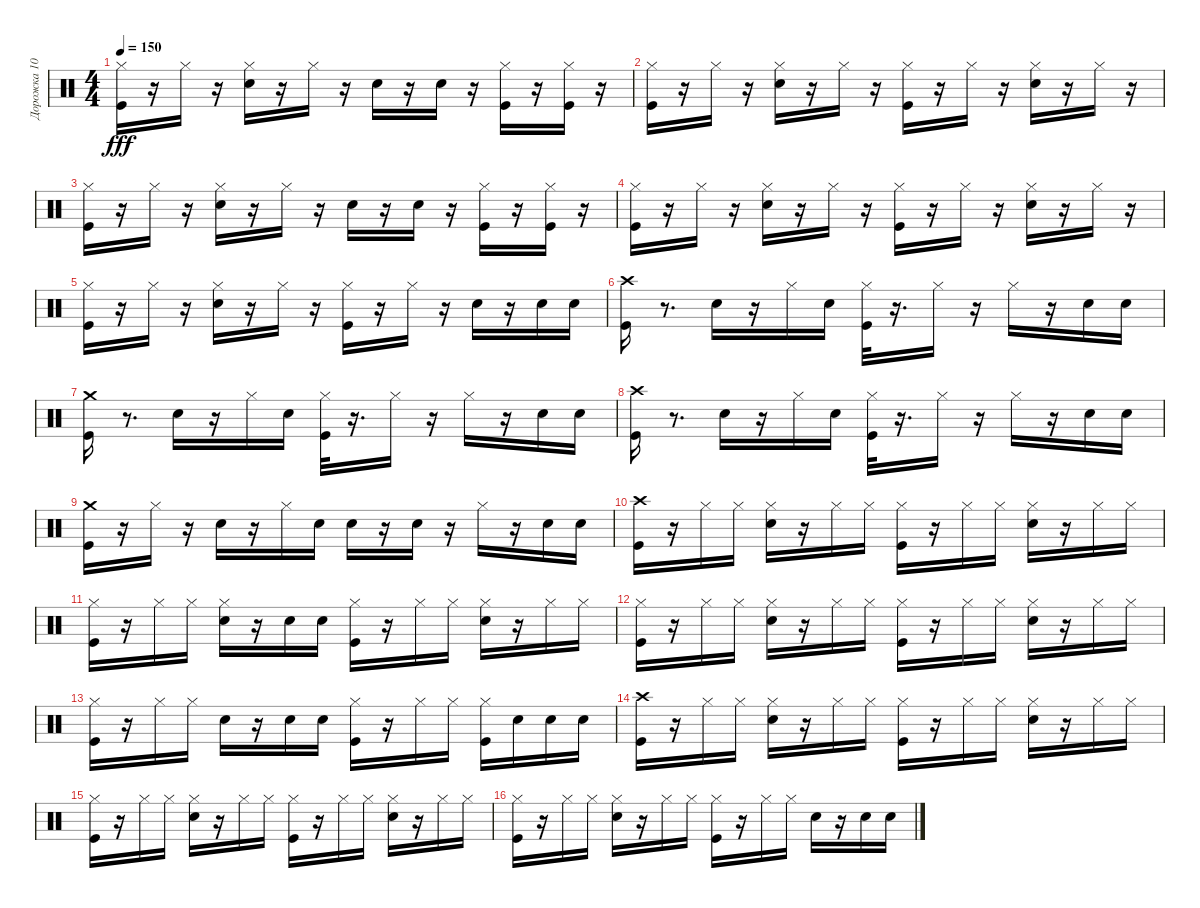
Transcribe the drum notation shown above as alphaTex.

\track ("Дорожка 10" "Дорожка 10") {instrument percussion}
\staff {score}
\articulation defaults
\ts (4 4)
\tempo 150
\clef neutral
\ks c
("Hi-Hat (closed)" "Kick (hit)").16{dy fff} r.16 "Hi-Hat (closed)".16 r.16 ("Electric Snare (hit)" "Hi-Hat (closed)").16 r.16 "Hi-Hat (closed)".16 r.16 "Electric Snare (hit)".16 r.16 "Electric Snare (hit)".16 r.16 ("Kick (hit)" "Hi-Hat (closed)").16 r.16 ("Hi-Hat (closed)" "Kick (hit)").16 r.16 |
("Hi-Hat (closed)" "Kick (hit)").16 r.16 "Hi-Hat (closed)".16 r.16 ("Electric Snare (hit)" "Hi-Hat (closed)").16 r.16 "Hi-Hat (closed)".16 r.16 ("Kick (hit)" "Hi-Hat (closed)").16 r.16 "Hi-Hat (closed)".16 r.16 ("Electric Snare (hit)" "Hi-Hat (closed)").16 r.16 "Hi-Hat (closed)".16 r.16 |
("Hi-Hat (closed)" "Kick (hit)").16 r.16 "Hi-Hat (closed)".16 r.16 ("Hi-Hat (closed)" "Electric Snare (hit)").16 r.16 "Hi-Hat (closed)".16 r.16 "Electric Snare (hit)".16 r.16 "Electric Snare (hit)".16 r.16 ("Hi-Hat (closed)" "Kick (hit)").16 r.16 ("Hi-Hat (closed)" "Kick (hit)").16 r.16 |
("Kick (hit)" "Hi-Hat (closed)").16 r.16 "Hi-Hat (closed)".16 r.16 ("Hi-Hat (closed)" "Electric Snare (hit)").16 r.16 "Hi-Hat (closed)".16 r.16 ("Hi-Hat (closed)" "Kick (hit)").16 r.16 "Hi-Hat (closed)".16 r.16 ("Electric Snare (hit)" "Hi-Hat (closed)").16 r.16 "Hi-Hat (closed)".16 r.16 |
("Kick (hit)" "Hi-Hat (closed)").16 r.16 "Hi-Hat (closed)".16 r.16 ("Hi-Hat (closed)" "Electric Snare (hit)").16 r.16 "Hi-Hat (closed)".16 r.16 ("Hi-Hat (closed)" "Kick (hit)").16 r.16 "Hi-Hat (closed)".16 r.16 "Electric Snare (hit)".16 r.16 "Electric Snare (hit)".16 "Electric Snare (hit)".16 |
("Crash high (hit)" "Kick (hit)").16 r.8{d} "Electric Snare (hit)".16 r.16 "Hi-Hat (closed)".16 "Electric Snare (hit)".16 ("Hi-Hat (closed)" "Kick (hit)").32 r.16{d} "Hi-Hat (closed)".16 r.16 "Hi-Hat (closed)".16 r.16 "Electric Snare (hit)".16 "Electric Snare (hit)".16 |
("Crash medium (hit)" "Kick (hit)").16 r.8{d} "Electric Snare (hit)".16 r.16 "Hi-Hat (closed)".16 "Electric Snare (hit)".16 ("Hi-Hat (closed)" "Kick (hit)").32 r.16{d} "Hi-Hat (closed)".16 r.16 "Hi-Hat (closed)".16 r.16 "Electric Snare (hit)".16 "Electric Snare (hit)".16 |
("Crash high (hit)" "Kick (hit)").16 r.8{d} "Electric Snare (hit)".16 r.16 "Hi-Hat (closed)".16 "Electric Snare (hit)".16 ("Hi-Hat (closed)" "Kick (hit)").32 r.16{d} "Hi-Hat (closed)".16 r.16 "Hi-Hat (closed)".16 r.16 "Electric Snare (hit)".16 "Electric Snare (hit)".16 |
("Crash medium (hit)" "Kick (hit)").16 r.16 "Hi-Hat (closed)".16 r.16 "Electric Snare (hit)".16 r.16 "Hi-Hat (closed)".16 "Electric Snare (hit)".16 "Electric Snare (hit)".16 r.16 "Electric Snare (hit)".16 r.16 "Hi-Hat (closed)".16 r.16 "Electric Snare (hit)".16 "Electric Snare (hit)".16 |
("Kick (hit)" "Crash high (hit)").16 r.16 "Hi-Hat (closed)".16 "Hi-Hat (closed)".16 ("Hi-Hat (closed)" "Electric Snare (hit)").16 r.16 "Hi-Hat (closed)".16 "Hi-Hat (closed)".16 ("Hi-Hat (closed)" "Kick (hit)").16 r.16 "Hi-Hat (closed)".16 "Hi-Hat (closed)".16 ("Hi-Hat (closed)" "Electric Snare (hit)").16 r.16 "Hi-Hat (closed)".16 "Hi-Hat (closed)".16 |
("Hi-Hat (closed)" "Kick (hit)").16 r.16 "Hi-Hat (closed)".16 "Hi-Hat (closed)".16 ("Electric Snare (hit)" "Hi-Hat (closed)").16 r.16 "Electric Snare (hit)".16 "Electric Snare (hit)".16 ("Hi-Hat (closed)" "Kick (hit)").16 r.16 "Hi-Hat (closed)".16 "Hi-Hat (closed)".16 ("Hi-Hat (closed)" "Electric Snare (hit)").16 r.16 "Hi-Hat (closed)".16 "Hi-Hat (closed)".16 |
("Hi-Hat (closed)" "Kick (hit)").16 r.16 "Hi-Hat (closed)".16 "Hi-Hat (closed)".16 ("Electric Snare (hit)" "Hi-Hat (closed)").16 r.16 "Hi-Hat (closed)".16 "Hi-Hat (closed)".16 ("Hi-Hat (closed)" "Kick (hit)").16 r.16 "Hi-Hat (closed)".16 "Hi-Hat (closed)".16 ("Hi-Hat (closed)" "Electric Snare (hit)").16 r.16 "Hi-Hat (closed)".16 "Hi-Hat (closed)".16 |
("Kick (hit)" "Hi-Hat (closed)").16 r.16 "Hi-Hat (closed)".16 "Hi-Hat (closed)".16 "Electric Snare (hit)".16 r.16 "Electric Snare (hit)".16 "Electric Snare (hit)".16 ("Hi-Hat (closed)" "Kick (hit)").16 r.16 "Hi-Hat (closed)".16 "Hi-Hat (closed)".16 ("Hi-Hat (closed)" "Kick (hit)").16 "Electric Snare (hit)".16 "Electric Snare (hit)".16 "Electric Snare (hit)".16 |
("Kick (hit)" "Crash high (hit)").16 r.16 "Hi-Hat (closed)".16 "Hi-Hat (closed)".16 ("Electric Snare (hit)" "Hi-Hat (closed)").16 r.16 "Hi-Hat (closed)".16 "Hi-Hat (closed)".16 ("Kick (hit)" "Hi-Hat (closed)").16 r.16 "Hi-Hat (closed)".16 "Hi-Hat (closed)".16 ("Electric Snare (hit)" "Hi-Hat (closed)").16 r.16 "Hi-Hat (closed)".16 "Hi-Hat (closed)".16 |
("Kick (hit)" "Hi-Hat (closed)").16 r.16 "Hi-Hat (closed)".16 "Hi-Hat (closed)".16 ("Hi-Hat (closed)" "Electric Snare (hit)").16 r.16 "Hi-Hat (closed)".16 "Hi-Hat (closed)".16 ("Kick (hit)" "Hi-Hat (closed)").16 r.16 "Hi-Hat (closed)".16 "Hi-Hat (closed)".16 ("Electric Snare (hit)" "Hi-Hat (closed)").16 r.16 "Hi-Hat (closed)".16 "Hi-Hat (closed)".16 |
("Hi-Hat (closed)" "Kick (hit)").16 r.16 "Hi-Hat (closed)".16 "Hi-Hat (closed)".16 ("Electric Snare (hit)" "Hi-Hat (closed)").16 r.16 "Hi-Hat (closed)".16 "Hi-Hat (closed)".16 ("Kick (hit)" "Hi-Hat (closed)").16 r.16 "Hi-Hat (closed)".16 "Hi-Hat (closed)".16 "Electric Snare (hit)".16 r.16 "Electric Snare (hit)".16 "Electric Snare (hit)".16
